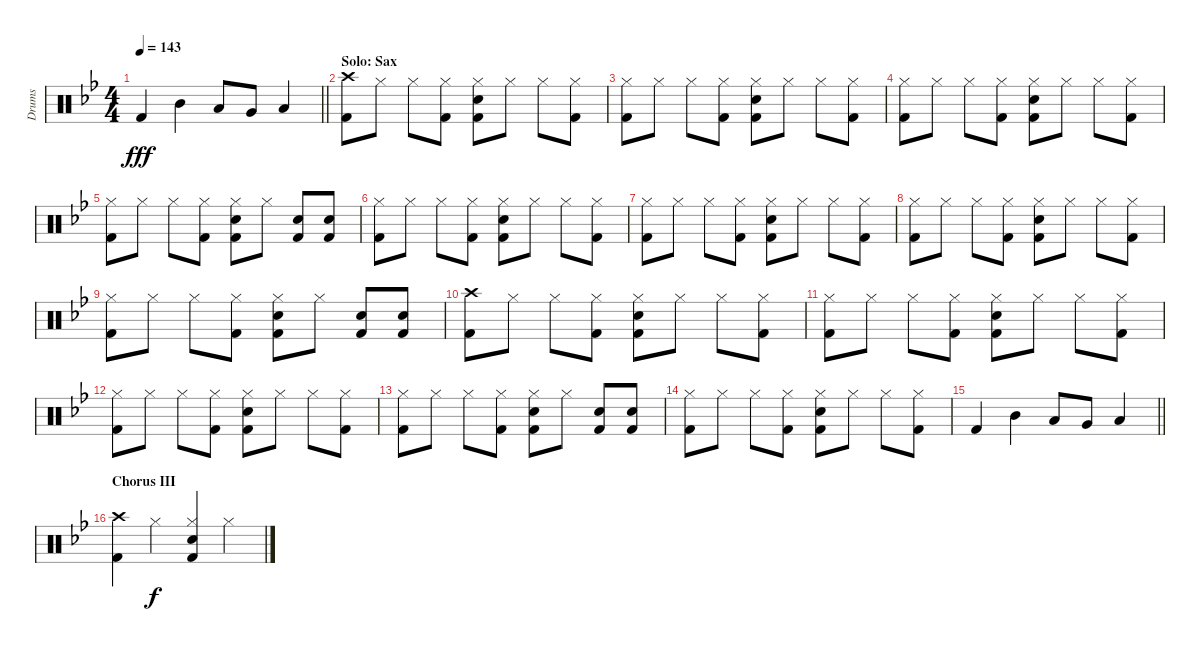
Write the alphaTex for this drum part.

\track ("Drums" "Drums") {instrument percussion}
\staff {score}
\articulation defaults
\ts (4 4)
\tempo 143
\clef neutral
\barLineRight lightlight
\ks bb "Kick (hit) 2".4{dy fff} "Mid Tom (hit)".4 "Low Tom (hit)".8 "Very Low Tom (hit)".8 "Low Floor Tom (hit)".4
|
\section ("" "Solo: Sax")
("Crash high (hit)" "Kick (hit) 2").8 "Hi-Hat (closed)".8 "Hi-Hat (closed)".8 ("Hi-Hat (closed)" "Kick (hit) 2").8 ("Hi-Hat (closed)" "Snare (hit) 2" "Kick (hit) 2").8 "Hi-Hat (closed)".8 "Hi-Hat (closed)".8 ("Hi-Hat (closed)" "Kick (hit) 2").8 |
("Hi-Hat (closed)" "Kick (hit) 2").8 "Hi-Hat (closed)".8 "Hi-Hat (closed)".8 ("Hi-Hat (closed)" "Kick (hit) 2").8 ("Hi-Hat (closed)" "Snare (hit) 2" "Kick (hit) 2").8 "Hi-Hat (closed)".8 "Hi-Hat (closed)".8 ("Hi-Hat (closed)" "Kick (hit) 2").8 |
("Hi-Hat (closed)" "Kick (hit) 2").8 "Hi-Hat (closed)".8 "Hi-Hat (closed)".8 ("Hi-Hat (closed)" "Kick (hit) 2").8 ("Hi-Hat (closed)" "Snare (hit) 2" "Kick (hit) 2").8 "Hi-Hat (closed)".8 "Hi-Hat (closed)".8 ("Hi-Hat (closed)" "Kick (hit) 2").8 |
("Hi-Hat (closed)" "Kick (hit) 2").8 "Hi-Hat (closed)".8 "Hi-Hat (closed)".8 ("Hi-Hat (closed)" "Kick (hit) 2").8 ("Hi-Hat (closed)" "Snare (hit) 2" "Kick (hit) 2").8 "Hi-Hat (closed)".8 ("Snare (hit) 2" "Kick (hit) 2").8 ("Snare (hit) 2" "Kick (hit) 2").8 |
("Hi-Hat (closed)" "Kick (hit) 2").8 "Hi-Hat (closed)".8 "Hi-Hat (closed)".8 ("Hi-Hat (closed)" "Kick (hit) 2").8 ("Hi-Hat (closed)" "Snare (hit) 2" "Kick (hit) 2").8 "Hi-Hat (closed)".8 "Hi-Hat (closed)".8 ("Hi-Hat (closed)" "Kick (hit) 2").8 |
("Hi-Hat (closed)" "Kick (hit) 2").8 "Hi-Hat (closed)".8 "Hi-Hat (closed)".8 ("Hi-Hat (closed)" "Kick (hit) 2").8 ("Hi-Hat (closed)" "Snare (hit) 2" "Kick (hit) 2").8 "Hi-Hat (closed)".8 "Hi-Hat (closed)".8 ("Hi-Hat (closed)" "Kick (hit) 2").8 |
("Hi-Hat (closed)" "Kick (hit) 2").8 "Hi-Hat (closed)".8 "Hi-Hat (closed)".8 ("Hi-Hat (closed)" "Kick (hit) 2").8 ("Hi-Hat (closed)" "Snare (hit) 2" "Kick (hit) 2").8 "Hi-Hat (closed)".8 "Hi-Hat (closed)".8 ("Hi-Hat (closed)" "Kick (hit) 2").8 |
("Hi-Hat (closed)" "Kick (hit) 2").8 "Hi-Hat (closed)".8 "Hi-Hat (closed)".8 ("Hi-Hat (closed)" "Kick (hit) 2").8 ("Hi-Hat (closed)" "Snare (hit) 2" "Kick (hit) 2").8 "Hi-Hat (closed)".8 ("Snare (hit) 2" "Kick (hit) 2").8 ("Snare (hit) 2" "Kick (hit) 2").8 |
("Crash high (hit)" "Kick (hit) 2").8 "Hi-Hat (closed)".8 "Hi-Hat (closed)".8 ("Hi-Hat (closed)" "Kick (hit) 2").8 ("Hi-Hat (closed)" "Snare (hit) 2" "Kick (hit) 2").8 "Hi-Hat (closed)".8 "Hi-Hat (closed)".8 ("Hi-Hat (closed)" "Kick (hit) 2").8 |
("Hi-Hat (closed)" "Kick (hit) 2").8 "Hi-Hat (closed)".8 "Hi-Hat (closed)".8 ("Hi-Hat (closed)" "Kick (hit) 2").8 ("Hi-Hat (closed)" "Snare (hit) 2" "Kick (hit) 2").8 "Hi-Hat (closed)".8 "Hi-Hat (closed)".8 ("Hi-Hat (closed)" "Kick (hit) 2").8 |
("Hi-Hat (closed)" "Kick (hit) 2").8 "Hi-Hat (closed)".8 "Hi-Hat (closed)".8 ("Hi-Hat (closed)" "Kick (hit) 2").8 ("Hi-Hat (closed)" "Snare (hit) 2" "Kick (hit) 2").8 "Hi-Hat (closed)".8 "Hi-Hat (closed)".8 ("Hi-Hat (closed)" "Kick (hit) 2").8 |
("Hi-Hat (closed)" "Kick (hit) 2").8 "Hi-Hat (closed)".8 "Hi-Hat (closed)".8 ("Hi-Hat (closed)" "Kick (hit) 2").8 ("Hi-Hat (closed)" "Snare (hit) 2" "Kick (hit) 2").8 "Hi-Hat (closed)".8 ("Snare (hit) 2" "Kick (hit) 2").8 ("Snare (hit) 2" "Kick (hit) 2").8 |
("Hi-Hat (closed)" "Kick (hit) 2").8 "Hi-Hat (closed)".8 "Hi-Hat (closed)".8 ("Hi-Hat (closed)" "Kick (hit) 2").8 ("Hi-Hat (closed)" "Snare (hit) 2" "Kick (hit) 2").8 "Hi-Hat (closed)".8 "Hi-Hat (closed)".8 ("Hi-Hat (closed)" "Kick (hit) 2").8 |
\barLineRight lightlight "Kick (hit) 2".4 "Mid Tom (hit)".4 "Low Tom (hit)".8 "Very Low Tom (hit)".8 "Low Floor Tom (hit)".4
|
\section ("" "Chorus III")
("Crash high (hit)" "Kick (hit) 2").4 "Hi-Hat (closed)".4{dy f} ("Hi-Hat (closed)" "Snare (hit) 2" "Kick (hit) 2").4 "Hi-Hat (closed)".4
